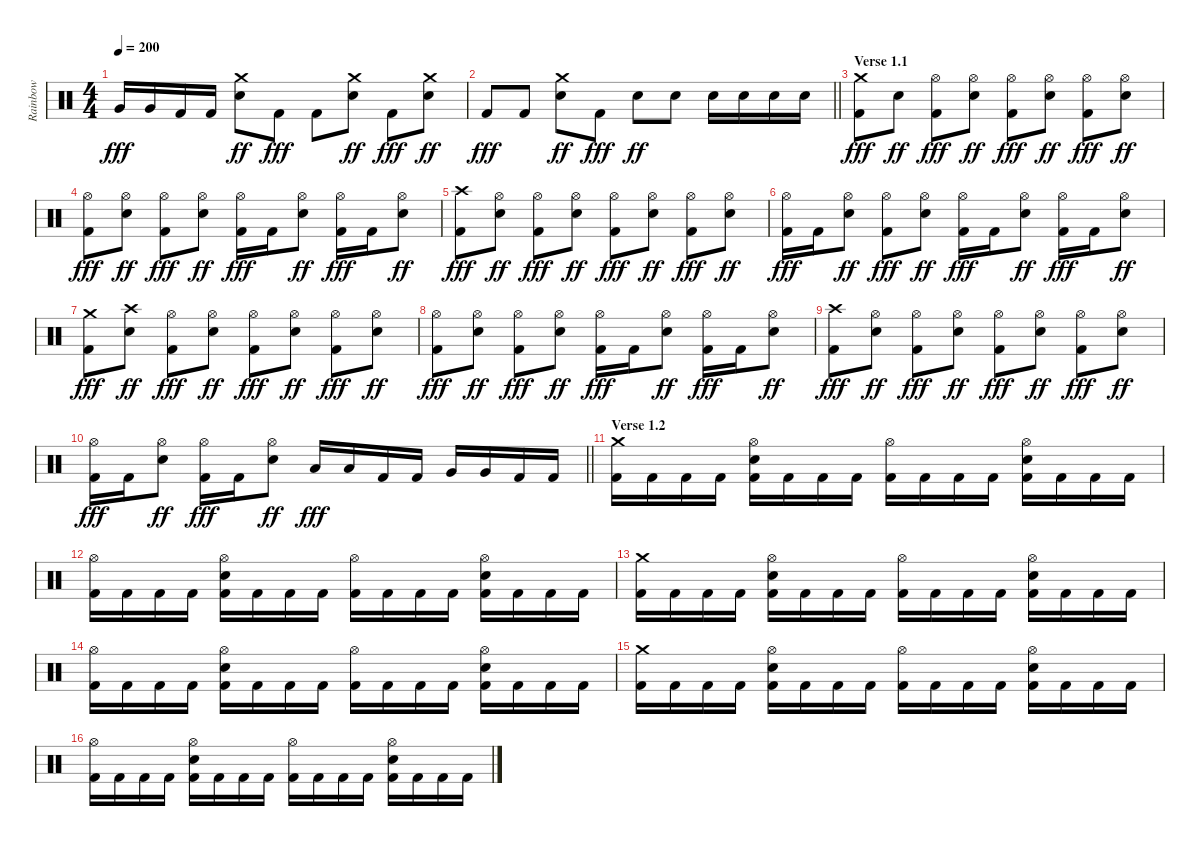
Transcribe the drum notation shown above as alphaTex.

\track ("Rainbow" "Rainbow") {instrument percussion}
\staff {score}
\articulation defaults
\ts (4 4)
\tempo 200
\clef neutral
\ks c "Very Low Tom (hit)".16{dy fff} "Very Low Tom (hit)".16 "Kick (hit) 2".16 "Kick (hit) 2".16
("Crash medium (hit)" "Electric Snare (hit)").8{dy ff} "Kick (hit) 2".8{dy fff} "Kick (hit) 2".8 ("Crash medium (hit)" "Electric Snare (hit)").8{dy ff} "Kick (hit) 2".8{dy fff} ("Crash medium (hit)" "Electric Snare (hit)").8{dy ff} |
\barLineRight lightlight "Kick (hit) 2".8{dy fff} "Kick (hit) 2".8
("Crash medium (hit)" "Electric Snare (hit)").8{dy ff} "Kick (hit) 2".8{dy fff} "Electric Snare (hit)".8{dy ff} "Electric Snare (hit)".8 "Electric Snare (hit)".16 "Electric Snare (hit)".16 "Electric Snare (hit)".16 "Electric Snare (hit)".16 |
\section ("" "Verse 1.1")
("Crash medium (hit)" "Kick (hit) 2").8{dy fff} "Electric Snare (hit)".8{dy ff} ("Hi-Hat (open)" "Kick (hit) 2").8{dy fff} ("Hi-Hat (open)" "Electric Snare (hit)").8{dy ff} ("Hi-Hat (open)" "Kick (hit) 2").8{dy fff} ("Hi-Hat (open)" "Electric Snare (hit)").8{dy ff} ("Hi-Hat (open)" "Kick (hit) 2").8{dy fff} ("Hi-Hat (open)" "Electric Snare (hit)").8{dy ff} |
("Hi-Hat (open)" "Kick (hit) 2").8{dy fff} ("Hi-Hat (open)" "Electric Snare (hit)").8{dy ff} ("Hi-Hat (open)" "Kick (hit) 2").8{dy fff} ("Hi-Hat (open)" "Electric Snare (hit)").8{dy ff} ("Hi-Hat (open)" "Kick (hit) 2").16{dy fff} "Kick (hit) 2".16 ("Hi-Hat (open)" "Electric Snare (hit)").8{dy ff} ("Hi-Hat (open)" "Kick (hit) 2").16{dy fff} "Kick (hit) 2".16 ("Hi-Hat (open)" "Electric Snare (hit)").8{dy ff} |
("Crash high (hit)" "Kick (hit) 2").8{dy fff} ("Hi-Hat (open)" "Electric Snare (hit)").8{dy ff} ("Hi-Hat (open)" "Kick (hit) 2").8{dy fff} ("Hi-Hat (open)" "Electric Snare (hit)").8{dy ff} ("Hi-Hat (open)" "Kick (hit) 2").8{dy fff} ("Hi-Hat (open)" "Electric Snare (hit)").8{dy ff} ("Hi-Hat (open)" "Kick (hit) 2").8{dy fff} ("Hi-Hat (open)" "Electric Snare (hit)").8{dy ff} |
("Hi-Hat (open)" "Kick (hit) 2").16{dy fff} "Kick (hit) 2".16 ("Hi-Hat (open)" "Electric Snare (hit)").8{dy ff} ("Hi-Hat (open)" "Kick (hit) 2").8{dy fff} ("Hi-Hat (open)" "Electric Snare (hit)").8{dy ff} ("Hi-Hat (open)" "Kick (hit) 2").16{dy fff} "Kick (hit) 2".16 ("Hi-Hat (open)" "Electric Snare (hit)").8{dy ff} ("Hi-Hat (open)" "Kick (hit) 2").16{dy fff} "Kick (hit) 2".16 ("Hi-Hat (open)" "Electric Snare (hit)").8{dy ff} |
("Crash medium (hit)" "Kick (hit) 2").8{dy fff} ("Crash high (hit)" "Electric Snare (hit)").8{dy ff} ("Hi-Hat (open)" "Kick (hit) 2").8{dy fff} ("Hi-Hat (open)" "Electric Snare (hit)").8{dy ff} ("Hi-Hat (open)" "Kick (hit) 2").8{dy fff} ("Hi-Hat (open)" "Electric Snare (hit)").8{dy ff} ("Hi-Hat (open)" "Kick (hit) 2").8{dy fff} ("Hi-Hat (open)" "Electric Snare (hit)").8{dy ff} |
("Hi-Hat (open)" "Kick (hit) 2").8{dy fff} ("Hi-Hat (open)" "Electric Snare (hit)").8{dy ff} ("Hi-Hat (open)" "Kick (hit) 2").8{dy fff} ("Hi-Hat (open)" "Electric Snare (hit)").8{dy ff} ("Hi-Hat (open)" "Kick (hit) 2").16{dy fff} "Kick (hit) 2".16 ("Hi-Hat (open)" "Electric Snare (hit)").8{dy ff} ("Hi-Hat (open)" "Kick (hit) 2").16{dy fff} "Kick (hit) 2".16 ("Hi-Hat (open)" "Electric Snare (hit)").8{dy ff} |
("Crash high (hit)" "Kick (hit) 2").8{dy fff} ("Hi-Hat (open)" "Electric Snare (hit)").8{dy ff} ("Hi-Hat (open)" "Kick (hit) 2").8{dy fff} ("Hi-Hat (open)" "Electric Snare (hit)").8{dy ff} ("Hi-Hat (open)" "Kick (hit) 2").8{dy fff} ("Hi-Hat (open)" "Electric Snare (hit)").8{dy ff} ("Hi-Hat (open)" "Kick (hit) 2").8{dy fff} ("Hi-Hat (open)" "Electric Snare (hit)").8{dy ff} |
\barLineRight lightlight
("Hi-Hat (open)" "Kick (hit) 2").16{dy fff} "Kick (hit) 2".16 ("Hi-Hat (open)" "Electric Snare (hit)").8{dy ff} ("Hi-Hat (open)" "Kick (hit) 2").16{dy fff} "Kick (hit) 2".16 ("Hi-Hat (open)" "Electric Snare (hit)").8{dy ff} "Low Tom (hit)".16{dy fff} "Low Tom (hit)".16 "Kick (hit) 2".16 "Kick (hit) 2".16 "Very Low Tom (hit)".16 "Very Low Tom (hit)".16 "Kick (hit) 2".16 "Kick (hit) 2".16 |
\section ("" "Verse 1.2")
("Crash medium (hit)" "Kick (hit) 2").16 "Kick (hit) 2".16 "Kick (hit) 2".16 "Kick (hit) 2".16 ("Hi-Hat (open)" "Electric Snare (hit)" "Kick (hit) 2").16 "Kick (hit) 2".16 "Kick (hit) 2".16 "Kick (hit) 2".16 ("Hi-Hat (open)" "Kick (hit) 2").16 "Kick (hit) 2".16 "Kick (hit) 2".16 "Kick (hit) 2".16 ("Hi-Hat (open)" "Electric Snare (hit)" "Kick (hit) 2").16 "Kick (hit) 2".16 "Kick (hit) 2".16 "Kick (hit) 2".16 |
("Hi-Hat (open)" "Kick (hit) 2").16 "Kick (hit) 2".16 "Kick (hit) 2".16 "Kick (hit) 2".16 ("Hi-Hat (open)" "Electric Snare (hit)" "Kick (hit) 2").16 "Kick (hit) 2".16 "Kick (hit) 2".16 "Kick (hit) 2".16 ("Hi-Hat (open)" "Kick (hit) 2").16 "Kick (hit) 2".16 "Kick (hit) 2".16 "Kick (hit) 2".16 ("Hi-Hat (open)" "Electric Snare (hit)" "Kick (hit) 2").16 "Kick (hit) 2".16 "Kick (hit) 2".16 "Kick (hit) 2".16 |
("Crash medium (hit)" "Kick (hit) 2").16 "Kick (hit) 2".16 "Kick (hit) 2".16 "Kick (hit) 2".16 ("Hi-Hat (open)" "Electric Snare (hit)" "Kick (hit) 2").16 "Kick (hit) 2".16 "Kick (hit) 2".16 "Kick (hit) 2".16 ("Hi-Hat (open)" "Kick (hit) 2").16 "Kick (hit) 2".16 "Kick (hit) 2".16 "Kick (hit) 2".16 ("Hi-Hat (open)" "Electric Snare (hit)" "Kick (hit) 2").16 "Kick (hit) 2".16 "Kick (hit) 2".16 "Kick (hit) 2".16 |
("Hi-Hat (open)" "Kick (hit) 2").16 "Kick (hit) 2".16 "Kick (hit) 2".16 "Kick (hit) 2".16 ("Hi-Hat (open)" "Electric Snare (hit)" "Kick (hit) 2").16 "Kick (hit) 2".16 "Kick (hit) 2".16 "Kick (hit) 2".16 ("Hi-Hat (open)" "Kick (hit) 2").16 "Kick (hit) 2".16 "Kick (hit) 2".16 "Kick (hit) 2".16 ("Hi-Hat (open)" "Electric Snare (hit)" "Kick (hit) 2").16 "Kick (hit) 2".16 "Kick (hit) 2".16 "Kick (hit) 2".16 |
("Crash medium (hit)" "Kick (hit) 2").16 "Kick (hit) 2".16 "Kick (hit) 2".16 "Kick (hit) 2".16 ("Hi-Hat (open)" "Electric Snare (hit)" "Kick (hit) 2").16 "Kick (hit) 2".16 "Kick (hit) 2".16 "Kick (hit) 2".16 ("Hi-Hat (open)" "Kick (hit) 2").16 "Kick (hit) 2".16 "Kick (hit) 2".16 "Kick (hit) 2".16 ("Hi-Hat (open)" "Electric Snare (hit)" "Kick (hit) 2").16 "Kick (hit) 2".16 "Kick (hit) 2".16 "Kick (hit) 2".16 |
("Hi-Hat (open)" "Kick (hit) 2").16 "Kick (hit) 2".16 "Kick (hit) 2".16 "Kick (hit) 2".16 ("Hi-Hat (open)" "Electric Snare (hit)" "Kick (hit) 2").16 "Kick (hit) 2".16 "Kick (hit) 2".16 "Kick (hit) 2".16 ("Hi-Hat (open)" "Kick (hit) 2").16 "Kick (hit) 2".16 "Kick (hit) 2".16 "Kick (hit) 2".16 ("Hi-Hat (open)" "Electric Snare (hit)" "Kick (hit) 2").16 "Kick (hit) 2".16 "Kick (hit) 2".16 "Kick (hit) 2".16
